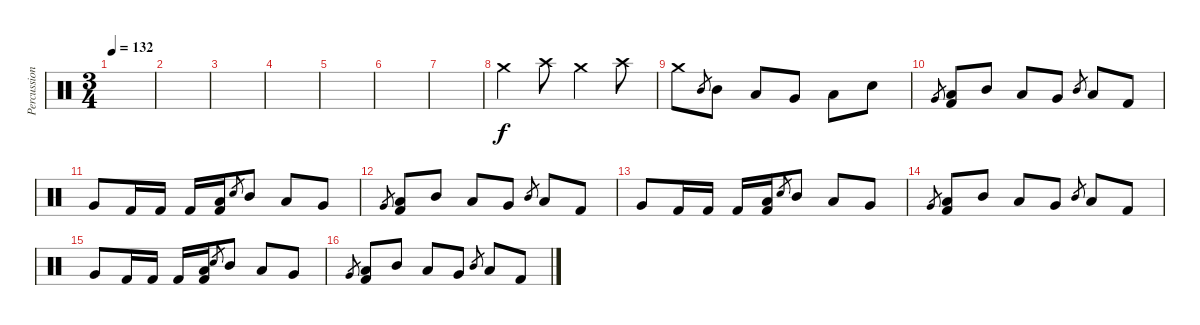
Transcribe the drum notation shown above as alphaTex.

\track ("Percussion" "Percussion") {instrument percussion}
\staff {score}
\articulation defaults
\ts (3 4)
\tempo 132
\clef neutral
\ks c
|
|
|
|
|
|
|
"Crash medium (hit)".4 "Crash high (hit)".8 "Crash medium (hit)".4 "Crash high (hit)".8 |
"Crash medium (hit)".8 "Mid Tom (hit)".8{gr} "Mid Tom (hit)".8 "Low Tom (hit)".8 "Very Low Tom (hit)".8 "Low Floor Tom (hit)".8 "Electric Snare (hit)".8 |
"Very Low Tom (hit)".8{gr} ("Low Floor Tom (hit)" "Kick (hit) 2").8 "Mid Tom (hit)".8 "Low Tom (hit)".8 "Very Low Tom (hit)".8 "Mid Tom (hit)".8{gr} "Low Tom (hit)".8 "Kick (hit) 2".8 |
"Very Low Tom (hit)".8 "Kick (hit) 2".16 "Kick (hit) 2".16 "Kick (hit) 2".16 ("Low Tom (hit)" "Kick (hit) 2").16 "Electric Snare (hit)".8{gr} "Mid Tom (hit)".8 "Low Tom (hit)".8 "Very Low Tom (hit)".8 |
"Very Low Tom (hit)".8{gr} ("Low Floor Tom (hit)" "Kick (hit) 2").8 "Mid Tom (hit)".8 "Low Tom (hit)".8 "Very Low Tom (hit)".8 "Mid Tom (hit)".8{gr} "Low Tom (hit)".8 "Kick (hit) 2".8 |
"Very Low Tom (hit)".8 "Kick (hit) 2".16 "Kick (hit) 2".16 "Kick (hit) 2".16 ("Low Tom (hit)" "Kick (hit) 2").16 "Electric Snare (hit)".8{gr} "Mid Tom (hit)".8 "Low Tom (hit)".8 "Very Low Tom (hit)".8 |
"Very Low Tom (hit)".8{gr} ("Low Floor Tom (hit)" "Kick (hit) 2").8 "Mid Tom (hit)".8 "Low Tom (hit)".8 "Very Low Tom (hit)".8 "Mid Tom (hit)".8{gr} "Low Tom (hit)".8 "Kick (hit) 2".8 |
"Very Low Tom (hit)".8 "Kick (hit) 2".16 "Kick (hit) 2".16 "Kick (hit) 2".16 ("Low Tom (hit)" "Kick (hit) 2").16 "Electric Snare (hit)".8{gr} "Mid Tom (hit)".8 "Low Tom (hit)".8 "Very Low Tom (hit)".8 |
"Very Low Tom (hit)".8{gr} ("Low Floor Tom (hit)" "Kick (hit) 2").8 "Mid Tom (hit)".8 "Low Tom (hit)".8 "Very Low Tom (hit)".8 "Mid Tom (hit)".8{gr} "Low Tom (hit)".8 "Kick (hit) 2".8
